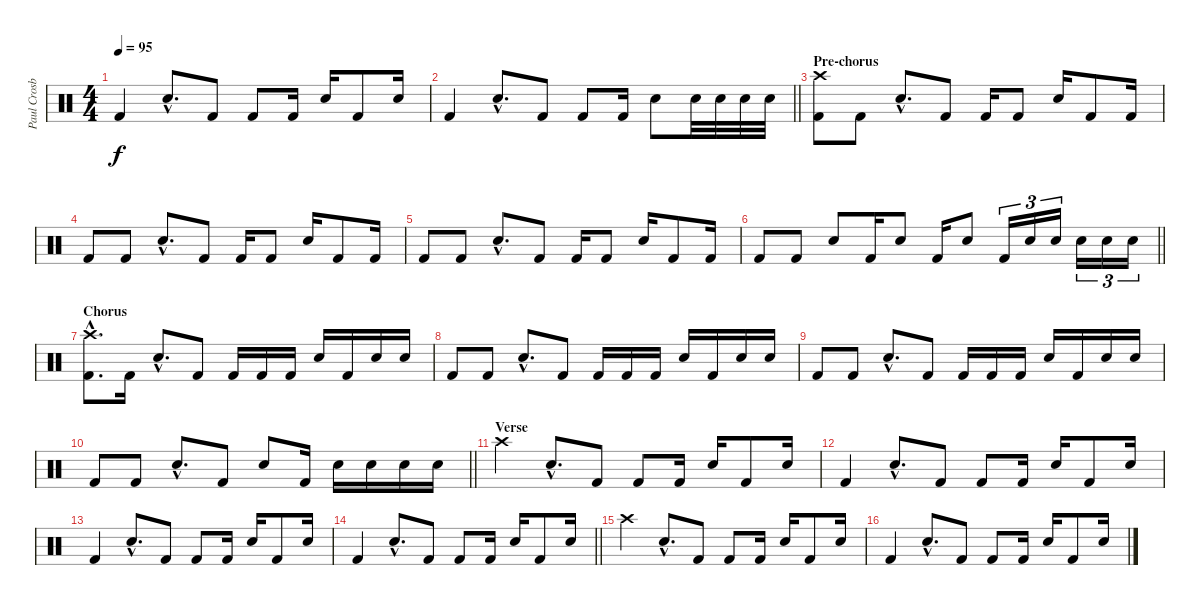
\track ("Paul Crosby (Drums)" "Paul Crosb") {instrument percussion}
\staff {score}
\articulation defaults
\ts (4 4)
\tempo 95
\clef neutral
\ks c "Kick (hit) 2".4{dy f} "Electric Snare (hit)"{hac}.8{d} "Kick (hit) 2".8 "Kick (hit) 2".8 "Kick (hit) 2".16 "Electric Snare (hit)".16 "Kick (hit) 2".8 "Electric Snare (hit)".16
|
\barLineRight lightlight "Kick (hit) 2".4 "Electric Snare (hit)"{hac}.8{d} "Kick (hit) 2".8 "Kick (hit) 2".8 "Kick (hit) 2".16 "Electric Snare (hit)".8 "Electric Snare (hit)".32 "Electric Snare (hit)".32 "Electric Snare (hit)".32 "Electric Snare (hit)".32
|
\section ("" "Pre-chorus")
("Crash high (hit)" "Kick (hit) 2").8 "Kick (hit) 2".8 "Electric Snare (hit)"{hac}.8{d} "Kick (hit) 2".8 "Kick (hit) 2".16 "Kick (hit) 2".8 "Electric Snare (hit)".16 "Kick (hit) 2".8 "Kick (hit) 2".16 |
"Kick (hit) 2".8 "Kick (hit) 2".8 "Electric Snare (hit)"{hac}.8{d} "Kick (hit) 2".8 "Kick (hit) 2".16 "Kick (hit) 2".8 "Electric Snare (hit)".16 "Kick (hit) 2".8 "Kick (hit) 2".16 |
"Kick (hit) 2".8 "Kick (hit) 2".8 "Electric Snare (hit)"{hac}.8{d} "Kick (hit) 2".8 "Kick (hit) 2".16 "Kick (hit) 2".8 "Electric Snare (hit)".16 "Kick (hit) 2".8 "Kick (hit) 2".16 |
\barLineRight lightlight "Kick (hit) 2".8 "Kick (hit) 2".8 "Electric Snare (hit)".8 "Kick (hit) 2".16 "Electric Snare (hit)".8 "Kick (hit) 2".16 "Electric Snare (hit)".8 "Kick (hit) 2".16{tu (3 2)} "Electric Snare (hit)".16{tu (3 2)} "Electric Snare (hit)".16{tu (3 2)} "Electric Snare (hit)".16{tu (3 2)} "Electric Snare (hit)".16{tu (3 2)} "Electric Snare (hit)".16{tu (3 2)}
|
\section ("" "Chorus")
("Crash high (hit)"{hac} "Kick (hit) 2"{hac}).8{d} "Kick (hit) 2".16 "Electric Snare (hit)"{hac}.8{d} "Kick (hit) 2".8 "Kick (hit) 2".16 "Kick (hit) 2".16 "Kick (hit) 2".16 "Electric Snare (hit)".16 "Kick (hit) 2".16 "Electric Snare (hit)".16 "Electric Snare (hit)".16 |
"Kick (hit) 2".8 "Kick (hit) 2".8 "Electric Snare (hit)"{hac}.8{d} "Kick (hit) 2".8 "Kick (hit) 2".16 "Kick (hit) 2".16 "Kick (hit) 2".16 "Electric Snare (hit)".16 "Kick (hit) 2".16 "Electric Snare (hit)".16 "Electric Snare (hit)".16 |
"Kick (hit) 2".8 "Kick (hit) 2".8 "Electric Snare (hit)"{hac}.8{d} "Kick (hit) 2".8 "Kick (hit) 2".16 "Kick (hit) 2".16 "Kick (hit) 2".16 "Electric Snare (hit)".16 "Kick (hit) 2".16 "Electric Snare (hit)".16 "Electric Snare (hit)".16 |
\barLineRight lightlight "Kick (hit) 2".8 "Kick (hit) 2".8 "Electric Snare (hit)"{hac}.8{d} "Kick (hit) 2".8 "Electric Snare (hit)".8 "Kick (hit) 2".16 "Electric Snare (hit)".16 "Electric Snare (hit)".16 "Electric Snare (hit)".16 "Electric Snare (hit)".16
|
\section ("" "Verse")
"Crash high (hit)".4 "Electric Snare (hit)"{hac}.8{d} "Kick (hit) 2".8 "Kick (hit) 2".8 "Kick (hit) 2".16 "Electric Snare (hit)".16 "Kick (hit) 2".8 "Electric Snare (hit)".16 |
"Kick (hit) 2".4 "Electric Snare (hit)"{hac}.8{d} "Kick (hit) 2".8 "Kick (hit) 2".8 "Kick (hit) 2".16 "Electric Snare (hit)".16 "Kick (hit) 2".8 "Electric Snare (hit)".16 |
"Kick (hit) 2".4 "Electric Snare (hit)"{hac}.8{d} "Kick (hit) 2".8 "Kick (hit) 2".8 "Kick (hit) 2".16 "Electric Snare (hit)".16 "Kick (hit) 2".8 "Electric Snare (hit)".16 |
\barLineRight lightlight "Kick (hit) 2".4 "Electric Snare (hit)"{hac}.8{d} "Kick (hit) 2".8 "Kick (hit) 2".8 "Kick (hit) 2".16 "Electric Snare (hit)".16 "Kick (hit) 2".8 "Electric Snare (hit)".16
|
"Crash high (hit)".4 "Electric Snare (hit)"{hac}.8{d} "Kick (hit) 2".8 "Kick (hit) 2".8 "Kick (hit) 2".16 "Electric Snare (hit)".16 "Kick (hit) 2".8 "Electric Snare (hit)".16 |
"Kick (hit) 2".4 "Electric Snare (hit)"{hac}.8{d} "Kick (hit) 2".8 "Kick (hit) 2".8 "Kick (hit) 2".16 "Electric Snare (hit)".16 "Kick (hit) 2".8 "Electric Snare (hit)".16
